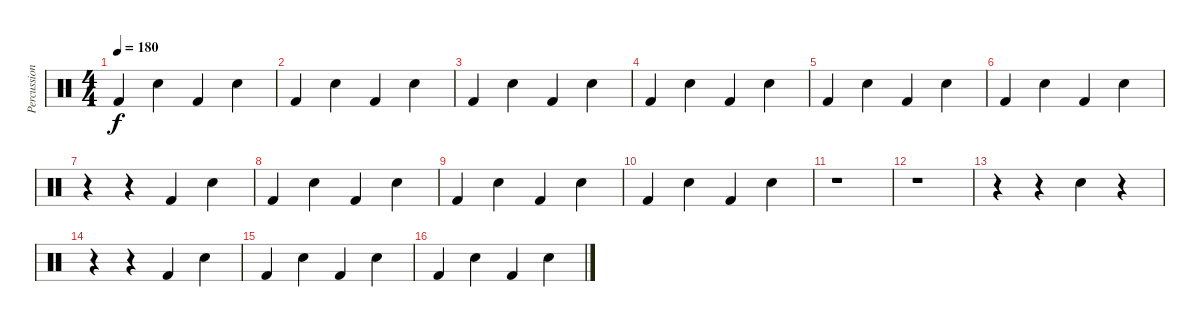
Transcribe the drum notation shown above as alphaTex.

\track ("Percussion" "Percussion") {instrument percussion}
\staff {score}
\articulation defaults
\ts (4 4)
\tempo 180
\clef neutral
\ks c "Kick (hit) 2".4{dy f} "Snare (hit) 2".4 "Kick (hit) 2".4 "Snare (hit) 2".4
|
"Kick (hit) 2".4 "Snare (hit) 2".4 "Kick (hit) 2".4 "Snare (hit) 2".4 |
"Kick (hit) 2".4 "Snare (hit) 2".4 "Kick (hit) 2".4 "Snare (hit) 2".4 |
"Kick (hit) 2".4 "Snare (hit) 2".4 "Kick (hit) 2".4 "Snare (hit) 2".4 |
"Kick (hit) 2".4 "Snare (hit) 2".4 "Kick (hit) 2".4 "Snare (hit) 2".4 |
"Kick (hit) 2".4 "Snare (hit) 2".4 "Kick (hit) 2".4 "Snare (hit) 2".4 |
r.4 r.4 "Kick (hit) 2".4 "Snare (hit) 2".4 |
"Kick (hit) 2".4 "Snare (hit) 2".4 "Kick (hit) 2".4 "Snare (hit) 2".4 |
"Kick (hit) 2".4 "Snare (hit) 2".4 "Kick (hit) 2".4 "Snare (hit) 2".4 |
"Kick (hit) 2".4 "Snare (hit) 2".4 "Kick (hit) 2".4 "Snare (hit) 2".4 |
r.1 |
r.1 |
r.4 r.4 "Snare (hit) 2".4 r.4 |
r.4 r.4 "Kick (hit) 2".4 "Snare (hit) 2".4 |
"Kick (hit) 2".4 "Snare (hit) 2".4 "Kick (hit) 2".4 "Snare (hit) 2".4 |
"Kick (hit) 2".4 "Snare (hit) 2".4 "Kick (hit) 2".4 "Snare (hit) 2".4
